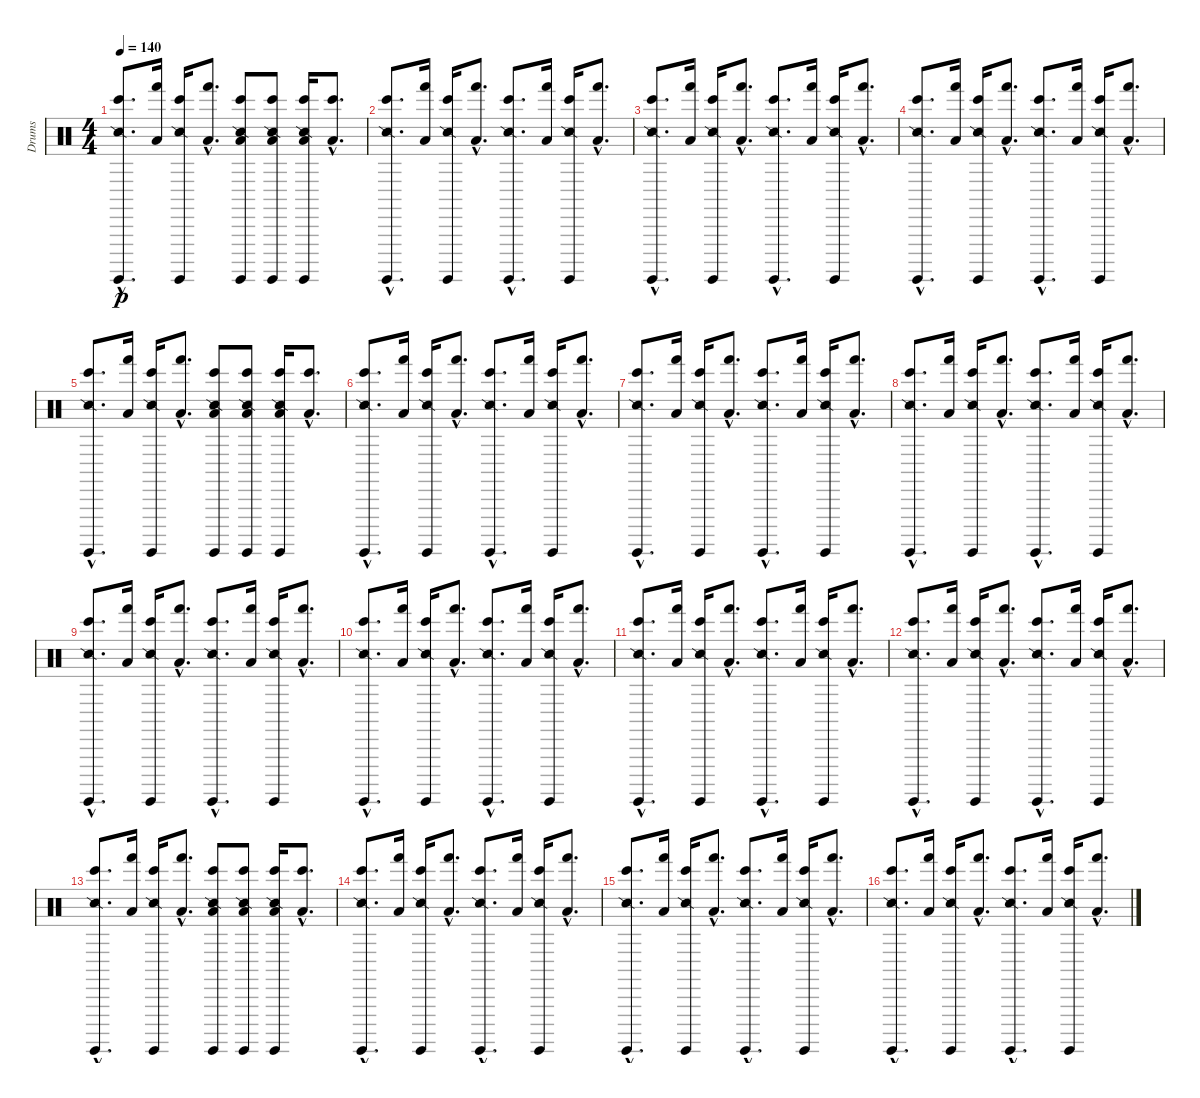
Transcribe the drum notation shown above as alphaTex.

\track ("Drums" "Drums") {instrument percussion}
\staff {score}
\articulation defaults
\ts (4 4)
\tempo 140
\clef neutral
\ks c
("Surdo (hit)"{hac} "Snare (side stick) 2"{hac} "Bongo High (hit)"{hac}).8{d dy p} ("Hand (hit)" "Low Floor Tom (hit)").16 ("Surdo (hit)" "Snare (side stick) 2" "Bongo High (hit)").16 ("Hand (hit)"{hac} "Low Floor Tom (hit)"{hac}).8{d} ("Surdo (hit)" "Snare (side stick) 2" "Bongo High (hit)" "Low Floor Tom (hit)").8 ("Surdo (hit)" "Snare (side stick) 2" "Bongo High (hit)" "Low Floor Tom (hit)").8 ("Surdo (hit)" "Snare (side stick) 2" "Bongo High (hit)" "Low Floor Tom (hit)").16 ("Bongo High (hit)"{hac} "Low Floor Tom (hit)"{hac}).8{d} |
("Surdo (hit)"{hac} "Snare (side stick) 2"{hac} "Bongo High (hit)"{hac}).8{d} ("Hand (hit)" "Low Floor Tom (hit)").16 ("Surdo (hit)" "Snare (side stick) 2" "Bongo High (hit)").16 ("Hand (hit)"{hac} "Low Floor Tom (hit)"{hac}).8{d} ("Surdo (hit)"{hac} "Snare (side stick) 2"{hac} "Bongo High (hit)"{hac}).8{d} ("Hand (hit)" "Low Floor Tom (hit)").16 ("Surdo (hit)" "Snare (side stick) 2" "Bongo High (hit)").16 ("Hand (hit)"{hac} "Low Floor Tom (hit)"{hac}).8{d} |
("Surdo (hit)"{hac} "Snare (side stick) 2"{hac} "Bongo High (hit)"{hac}).8{d} ("Hand (hit)" "Low Floor Tom (hit)").16 ("Surdo (hit)" "Snare (side stick) 2" "Bongo High (hit)").16 ("Hand (hit)"{hac} "Low Floor Tom (hit)"{hac}).8{d} ("Surdo (hit)"{hac} "Snare (side stick) 2"{hac} "Bongo High (hit)"{hac}).8{d} ("Hand (hit)" "Low Floor Tom (hit)").16 ("Surdo (hit)" "Snare (side stick) 2" "Bongo High (hit)").16 ("Hand (hit)"{hac} "Low Floor Tom (hit)"{hac}).8{d} |
("Surdo (hit)"{hac} "Snare (side stick) 2"{hac} "Bongo High (hit)"{hac}).8{d} ("Hand (hit)" "Low Floor Tom (hit)").16 ("Surdo (hit)" "Snare (side stick) 2" "Bongo High (hit)").16 ("Hand (hit)"{hac} "Low Floor Tom (hit)"{hac}).8{d} ("Surdo (hit)"{hac} "Snare (side stick) 2"{hac} "Bongo High (hit)"{hac}).8{d} ("Hand (hit)" "Low Floor Tom (hit)").16 ("Surdo (hit)" "Snare (side stick) 2" "Bongo High (hit)").16 ("Hand (hit)"{hac} "Low Floor Tom (hit)"{hac}).8{d} |
("Surdo (hit)"{hac} "Snare (side stick) 2"{hac} "Bongo High (hit)"{hac}).8{d} ("Hand (hit)" "Low Floor Tom (hit)").16 ("Surdo (hit)" "Snare (side stick) 2" "Bongo High (hit)").16 ("Hand (hit)"{hac} "Low Floor Tom (hit)"{hac}).8{d} ("Surdo (hit)" "Snare (side stick) 2" "Bongo High (hit)" "Low Floor Tom (hit)").8 ("Surdo (hit)" "Snare (side stick) 2" "Bongo High (hit)" "Low Floor Tom (hit)").8 ("Surdo (hit)" "Snare (side stick) 2" "Bongo High (hit)" "Low Floor Tom (hit)").16 ("Bongo High (hit)"{hac} "Low Floor Tom (hit)"{hac}).8{d} |
("Surdo (hit)"{hac} "Snare (side stick) 2"{hac} "Bongo High (hit)"{hac}).8{d} ("Hand (hit)" "Low Floor Tom (hit)").16 ("Surdo (hit)" "Snare (side stick) 2" "Bongo High (hit)").16 ("Hand (hit)"{hac} "Low Floor Tom (hit)"{hac}).8{d} ("Surdo (hit)"{hac} "Snare (side stick) 2"{hac} "Bongo High (hit)"{hac}).8{d} ("Hand (hit)" "Low Floor Tom (hit)").16 ("Surdo (hit)" "Snare (side stick) 2" "Bongo High (hit)").16 ("Hand (hit)"{hac} "Low Floor Tom (hit)"{hac}).8{d} |
("Surdo (hit)"{hac} "Snare (side stick) 2"{hac} "Bongo High (hit)"{hac}).8{d} ("Hand (hit)" "Low Floor Tom (hit)").16 ("Surdo (hit)" "Snare (side stick) 2" "Bongo High (hit)").16 ("Hand (hit)"{hac} "Low Floor Tom (hit)"{hac}).8{d} ("Surdo (hit)"{hac} "Snare (side stick) 2"{hac} "Bongo High (hit)"{hac}).8{d} ("Hand (hit)" "Low Floor Tom (hit)").16 ("Surdo (hit)" "Snare (side stick) 2" "Bongo High (hit)").16 ("Hand (hit)"{hac} "Low Floor Tom (hit)"{hac}).8{d} |
("Surdo (hit)"{hac} "Snare (side stick) 2"{hac} "Bongo High (hit)"{hac}).8{d} ("Hand (hit)" "Low Floor Tom (hit)").16 ("Surdo (hit)" "Snare (side stick) 2" "Bongo High (hit)").16 ("Hand (hit)"{hac} "Low Floor Tom (hit)"{hac}).8{d} ("Surdo (hit)"{hac} "Snare (side stick) 2"{hac} "Bongo High (hit)"{hac}).8{d} ("Hand (hit)" "Low Floor Tom (hit)").16 ("Surdo (hit)" "Snare (side stick) 2" "Bongo High (hit)").16 ("Hand (hit)"{hac} "Low Floor Tom (hit)"{hac}).8{d} |
("Surdo (hit)"{hac} "Snare (side stick) 2"{hac} "Bongo High (hit)"{hac}).8{d} ("Hand (hit)" "Low Floor Tom (hit)").16 ("Surdo (hit)" "Snare (side stick) 2" "Bongo High (hit)").16 ("Hand (hit)"{hac} "Low Floor Tom (hit)"{hac}).8{d} ("Surdo (hit)"{hac} "Snare (side stick) 2"{hac} "Bongo High (hit)"{hac}).8{d} ("Hand (hit)" "Low Floor Tom (hit)").16 ("Surdo (hit)" "Snare (side stick) 2" "Bongo High (hit)").16 ("Hand (hit)"{hac} "Low Floor Tom (hit)"{hac}).8{d} |
("Surdo (hit)"{hac} "Snare (side stick) 2"{hac} "Bongo High (hit)"{hac}).8{d} ("Hand (hit)" "Low Floor Tom (hit)").16 ("Surdo (hit)" "Snare (side stick) 2" "Bongo High (hit)").16 ("Hand (hit)"{hac} "Low Floor Tom (hit)"{hac}).8{d} ("Surdo (hit)"{hac} "Snare (side stick) 2"{hac} "Bongo High (hit)"{hac}).8{d} ("Hand (hit)" "Low Floor Tom (hit)").16 ("Surdo (hit)" "Snare (side stick) 2" "Bongo High (hit)").16 ("Hand (hit)"{hac} "Low Floor Tom (hit)"{hac}).8{d} |
("Surdo (hit)"{hac} "Snare (side stick) 2"{hac} "Bongo High (hit)"{hac}).8{d} ("Hand (hit)" "Low Floor Tom (hit)").16 ("Surdo (hit)" "Snare (side stick) 2" "Bongo High (hit)").16 ("Hand (hit)"{hac} "Low Floor Tom (hit)"{hac}).8{d} ("Surdo (hit)"{hac} "Snare (side stick) 2"{hac} "Bongo High (hit)"{hac}).8{d} ("Hand (hit)" "Low Floor Tom (hit)").16 ("Surdo (hit)" "Snare (side stick) 2" "Bongo High (hit)").16 ("Hand (hit)"{hac} "Low Floor Tom (hit)"{hac}).8{d} |
("Surdo (hit)"{hac} "Snare (side stick) 2"{hac} "Bongo High (hit)"{hac}).8{d} ("Hand (hit)" "Low Floor Tom (hit)").16 ("Surdo (hit)" "Snare (side stick) 2" "Bongo High (hit)").16 ("Hand (hit)"{hac} "Low Floor Tom (hit)"{hac}).8{d} ("Surdo (hit)"{hac} "Snare (side stick) 2"{hac} "Bongo High (hit)"{hac}).8{d} ("Hand (hit)" "Low Floor Tom (hit)").16 ("Surdo (hit)" "Snare (side stick) 2" "Bongo High (hit)").16 ("Hand (hit)"{hac} "Low Floor Tom (hit)"{hac}).8{d} |
("Surdo (hit)"{hac} "Snare (side stick) 2"{hac} "Bongo High (hit)"{hac}).8{d} ("Hand (hit)" "Low Floor Tom (hit)").16 ("Surdo (hit)" "Snare (side stick) 2" "Bongo High (hit)").16 ("Hand (hit)"{hac} "Low Floor Tom (hit)"{hac}).8{d} ("Surdo (hit)" "Snare (side stick) 2" "Bongo High (hit)" "Low Floor Tom (hit)").8 ("Surdo (hit)" "Snare (side stick) 2" "Bongo High (hit)" "Low Floor Tom (hit)").8 ("Surdo (hit)" "Snare (side stick) 2" "Bongo High (hit)" "Low Floor Tom (hit)").16 ("Bongo High (hit)"{hac} "Low Floor Tom (hit)"{hac}).8{d} |
("Surdo (hit)"{hac} "Snare (side stick) 2"{hac} "Bongo High (hit)"{hac}).8{d} ("Hand (hit)" "Low Floor Tom (hit)").16 ("Surdo (hit)" "Snare (side stick) 2" "Bongo High (hit)").16 ("Hand (hit)"{hac} "Low Floor Tom (hit)"{hac}).8{d} ("Surdo (hit)"{hac} "Snare (side stick) 2"{hac} "Bongo High (hit)"{hac}).8{d} ("Hand (hit)" "Low Floor Tom (hit)").16 ("Surdo (hit)" "Snare (side stick) 2" "Bongo High (hit)").16 ("Hand (hit)"{hac} "Low Floor Tom (hit)"{hac}).8{d} |
("Surdo (hit)"{hac} "Snare (side stick) 2"{hac} "Bongo High (hit)"{hac}).8{d} ("Hand (hit)" "Low Floor Tom (hit)").16 ("Surdo (hit)" "Snare (side stick) 2" "Bongo High (hit)").16 ("Hand (hit)"{hac} "Low Floor Tom (hit)"{hac}).8{d} ("Surdo (hit)"{hac} "Snare (side stick) 2"{hac} "Bongo High (hit)"{hac}).8{d} ("Hand (hit)" "Low Floor Tom (hit)").16 ("Surdo (hit)" "Snare (side stick) 2" "Bongo High (hit)").16 ("Hand (hit)"{hac} "Low Floor Tom (hit)"{hac}).8{d} |
("Surdo (hit)"{hac} "Snare (side stick) 2"{hac} "Bongo High (hit)"{hac}).8{d} ("Hand (hit)" "Low Floor Tom (hit)").16 ("Surdo (hit)" "Snare (side stick) 2" "Bongo High (hit)").16 ("Hand (hit)"{hac} "Low Floor Tom (hit)"{hac}).8{d} ("Surdo (hit)"{hac} "Snare (side stick) 2"{hac} "Bongo High (hit)"{hac}).8{d} ("Hand (hit)" "Low Floor Tom (hit)").16 ("Surdo (hit)" "Snare (side stick) 2" "Bongo High (hit)").16 ("Hand (hit)"{hac} "Low Floor Tom (hit)"{hac}).8{d}
